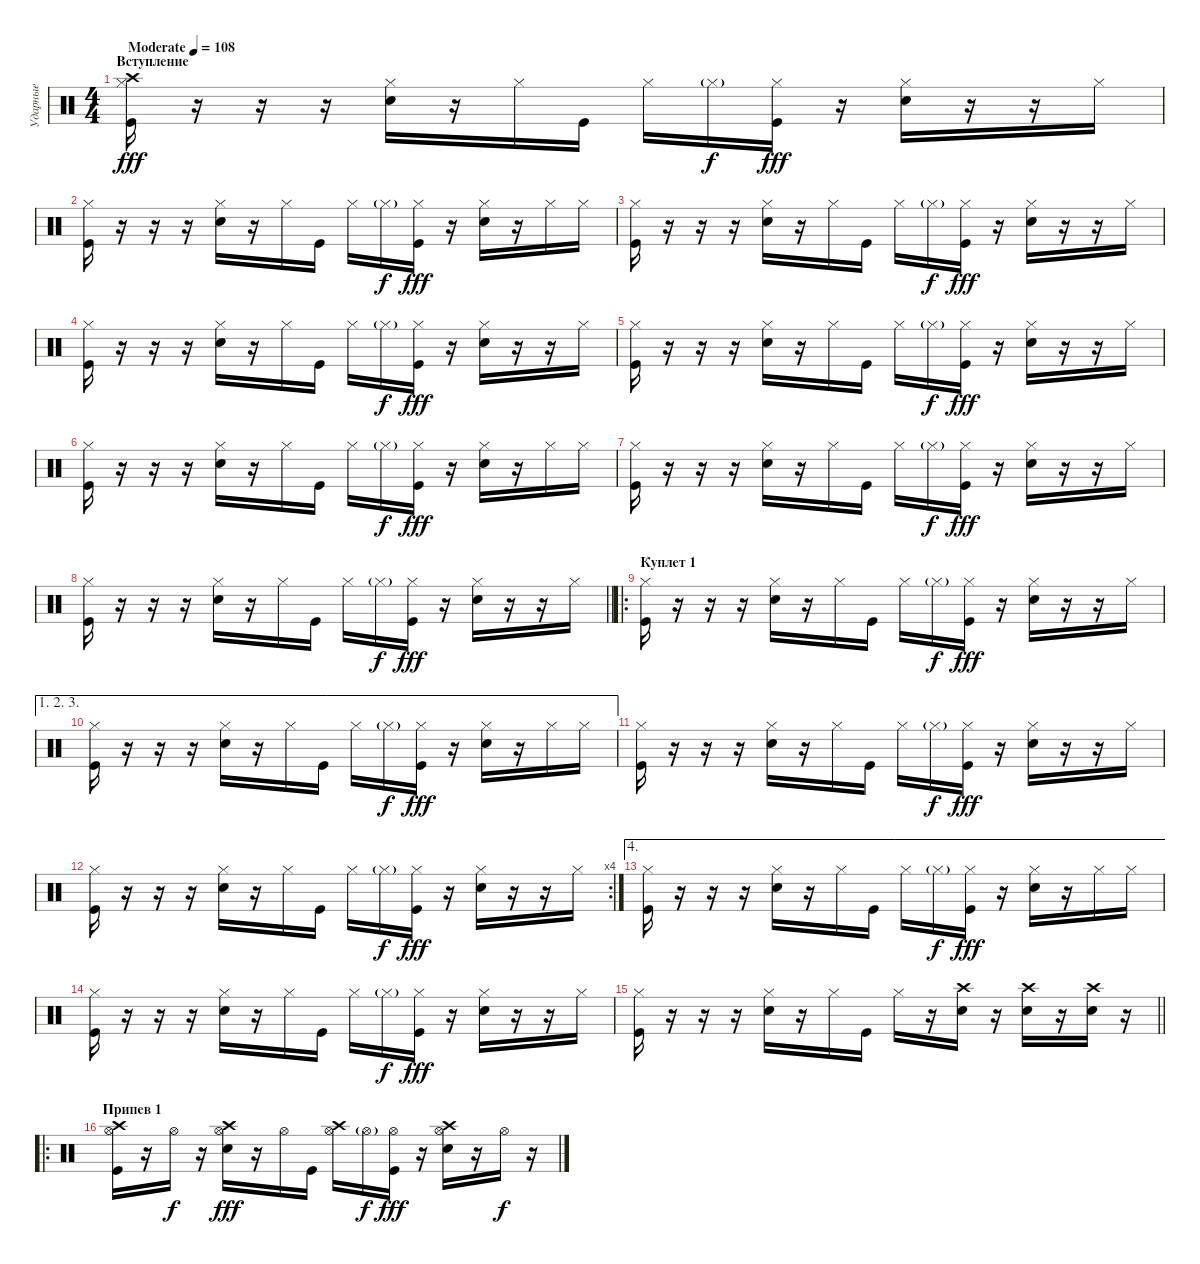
\track ("Ударные" "Ударные") {instrument percussion}
\staff {score}
\articulation defaults
\ts (4 4)
\section ("" "Вступление")
\tempo (108 "Moderate")
\clef neutral
\ks c
("Hi-Hat (closed)" "Kick (hit)" "Crash high (hit)").16{dy fff} r.16 r.16 r.16 ("Hi-Hat (closed)" "Electric Snare (hit)").16 r.16 "Hi-Hat (closed)".16 "Kick (hit)".16 "Hi-Hat (closed)".16 "Hi-Hat (closed)"{g}.16{dy f} ("Hi-Hat (closed)" "Kick (hit)").16{dy fff} r.16 ("Hi-Hat (closed)" "Electric Snare (hit)").16 r.16 r.16 "Hi-Hat (closed)".16 |
("Hi-Hat (closed)" "Kick (hit)").16 r.16 r.16 r.16 ("Hi-Hat (closed)" "Electric Snare (hit)").16 r.16 "Hi-Hat (closed)".16 "Kick (hit)".16 "Hi-Hat (closed)".16 "Hi-Hat (closed)"{g}.16{dy f} ("Hi-Hat (closed)" "Kick (hit)").16{dy fff} r.16 ("Hi-Hat (closed)" "Electric Snare (hit)").16 r.16 "Hi-Hat (closed)".16 "Hi-Hat (closed)".16 |
("Hi-Hat (closed)" "Kick (hit)").16 r.16 r.16 r.16 ("Hi-Hat (closed)" "Electric Snare (hit)").16 r.16 "Hi-Hat (closed)".16 "Kick (hit)".16 "Hi-Hat (closed)".16 "Hi-Hat (closed)"{g}.16{dy f} ("Hi-Hat (closed)" "Kick (hit)").16{dy fff} r.16 ("Hi-Hat (closed)" "Electric Snare (hit)").16 r.16 r.16 "Hi-Hat (closed)".16 |
("Hi-Hat (closed)" "Kick (hit)").16 r.16 r.16 r.16 ("Hi-Hat (closed)" "Electric Snare (hit)").16 r.16 "Hi-Hat (closed)".16 "Kick (hit)".16 "Hi-Hat (closed)".16 "Hi-Hat (closed)"{g}.16{dy f} ("Hi-Hat (closed)" "Kick (hit)").16{dy fff} r.16 ("Hi-Hat (closed)" "Electric Snare (hit)").16 r.16 r.16 "Hi-Hat (closed)".16 |
("Hi-Hat (closed)" "Kick (hit)").16 r.16 r.16 r.16 ("Hi-Hat (closed)" "Electric Snare (hit)").16 r.16 "Hi-Hat (closed)".16 "Kick (hit)".16 "Hi-Hat (closed)".16 "Hi-Hat (closed)"{g}.16{dy f} ("Hi-Hat (closed)" "Kick (hit)").16{dy fff} r.16 ("Hi-Hat (closed)" "Electric Snare (hit)").16 r.16 r.16 "Hi-Hat (closed)".16 |
("Hi-Hat (closed)" "Kick (hit)").16 r.16 r.16 r.16 ("Hi-Hat (closed)" "Electric Snare (hit)").16 r.16 "Hi-Hat (closed)".16 "Kick (hit)".16 "Hi-Hat (closed)".16 "Hi-Hat (closed)"{g}.16{dy f} ("Hi-Hat (closed)" "Kick (hit)").16{dy fff} r.16 ("Hi-Hat (closed)" "Electric Snare (hit)").16 r.16 "Hi-Hat (closed)".16 "Hi-Hat (closed)".16 |
("Hi-Hat (closed)" "Kick (hit)").16 r.16 r.16 r.16 ("Hi-Hat (closed)" "Electric Snare (hit)").16 r.16 "Hi-Hat (closed)".16 "Kick (hit)".16 "Hi-Hat (closed)".16 "Hi-Hat (closed)"{g}.16{dy f} ("Hi-Hat (closed)" "Kick (hit)").16{dy fff} r.16 ("Hi-Hat (closed)" "Electric Snare (hit)").16 r.16 r.16 "Hi-Hat (closed)".16 |
\barLineRight lightlight
("Hi-Hat (closed)" "Kick (hit)").16 r.16 r.16 r.16 ("Hi-Hat (closed)" "Electric Snare (hit)").16 r.16 "Hi-Hat (closed)".16 "Kick (hit)".16 "Hi-Hat (closed)".16 "Hi-Hat (closed)"{g}.16{dy f} ("Hi-Hat (closed)" "Kick (hit)").16{dy fff} r.16 ("Hi-Hat (closed)" "Electric Snare (hit)").16 r.16 r.16 "Hi-Hat (closed)".16 |
\ro
\section ("" "Куплет 1")
("Hi-Hat (closed)" "Kick (hit)").16 r.16 r.16 r.16 ("Hi-Hat (closed)" "Electric Snare (hit)").16 r.16 "Hi-Hat (closed)".16 "Kick (hit)".16 "Hi-Hat (closed)".16 "Hi-Hat (closed)"{g}.16{dy f} ("Hi-Hat (closed)" "Kick (hit)").16{dy fff} r.16 ("Hi-Hat (closed)" "Electric Snare (hit)").16 r.16 r.16 "Hi-Hat (closed)".16 |
\ae (1 2 3)
("Hi-Hat (closed)" "Kick (hit)").16 r.16 r.16 r.16 ("Hi-Hat (closed)" "Electric Snare (hit)").16 r.16 "Hi-Hat (closed)".16 "Kick (hit)".16 "Hi-Hat (closed)".16 "Hi-Hat (closed)"{g}.16{dy f} ("Hi-Hat (closed)" "Kick (hit)").16{dy fff} r.16 ("Hi-Hat (closed)" "Electric Snare (hit)").16 r.16 "Hi-Hat (closed)".16 "Hi-Hat (closed)".16 |
("Hi-Hat (closed)" "Kick (hit)").16 r.16 r.16 r.16 ("Hi-Hat (closed)" "Electric Snare (hit)").16 r.16 "Hi-Hat (closed)".16 "Kick (hit)".16 "Hi-Hat (closed)".16 "Hi-Hat (closed)"{g}.16{dy f} ("Hi-Hat (closed)" "Kick (hit)").16{dy fff} r.16 ("Hi-Hat (closed)" "Electric Snare (hit)").16 r.16 r.16 "Hi-Hat (closed)".16 |
\rc 4
("Hi-Hat (closed)" "Kick (hit)").16 r.16 r.16 r.16 ("Hi-Hat (closed)" "Electric Snare (hit)").16 r.16 "Hi-Hat (closed)".16 "Kick (hit)".16 "Hi-Hat (closed)".16 "Hi-Hat (closed)"{g}.16{dy f} ("Hi-Hat (closed)" "Kick (hit)").16{dy fff} r.16 ("Hi-Hat (closed)" "Electric Snare (hit)").16 r.16 r.16 "Hi-Hat (closed)".16 |
\ae 4
("Hi-Hat (closed)" "Kick (hit)").16 r.16 r.16 r.16 ("Hi-Hat (closed)" "Electric Snare (hit)").16 r.16 "Hi-Hat (closed)".16 "Kick (hit)".16 "Hi-Hat (closed)".16 "Hi-Hat (closed)"{g}.16{dy f} ("Hi-Hat (closed)" "Kick (hit)").16{dy fff} r.16 ("Hi-Hat (closed)" "Electric Snare (hit)").16 r.16 "Hi-Hat (closed)".16 "Hi-Hat (closed)".16 |
("Hi-Hat (closed)" "Kick (hit)").16 r.16 r.16 r.16 ("Hi-Hat (closed)" "Electric Snare (hit)").16 r.16 "Hi-Hat (closed)".16 "Kick (hit)".16 "Hi-Hat (closed)".16 "Hi-Hat (closed)"{g}.16{dy f} ("Hi-Hat (closed)" "Kick (hit)").16{dy fff} r.16 ("Hi-Hat (closed)" "Electric Snare (hit)").16 r.16 r.16 "Hi-Hat (closed)".16 |
\barLineRight lightlight
("Hi-Hat (closed)" "Kick (hit)").16 r.16 r.16 r.16 ("Hi-Hat (closed)" "Electric Snare (hit)").16 r.16 "Hi-Hat (closed)".16 "Kick (hit)".16 "Hi-Hat (closed)".16 r.16 ("Electric Snare (hit)" "Crash high (hit)").16 r.16 ("Electric Snare (hit)" "Crash high (hit)").16 r.16 ("Electric Snare (hit)" "Crash high (hit)").16 r.16 |
\ro
\section ("" "Припев 1")
("Hi-Hat (open)" "Kick (hit)" "Crash high (hit)").16 r.16 "Hi-Hat (open)".16{dy f} r.16 ("Hi-Hat (open)" "Electric Snare (hit)" "Crash high (hit)").16{dy fff} r.16 "Hi-Hat (open)".16 "Kick (hit)".16 ("Hi-Hat (open)" "Crash high (hit)").16 "Hi-Hat (open)"{g}.16{dy f} ("Hi-Hat (open)" "Kick (hit)").16{dy fff} r.16 ("Hi-Hat (open)" "Electric Snare (hit)" "Crash high (hit)").16 r.16 "Hi-Hat (open)".16{dy f} r.16
